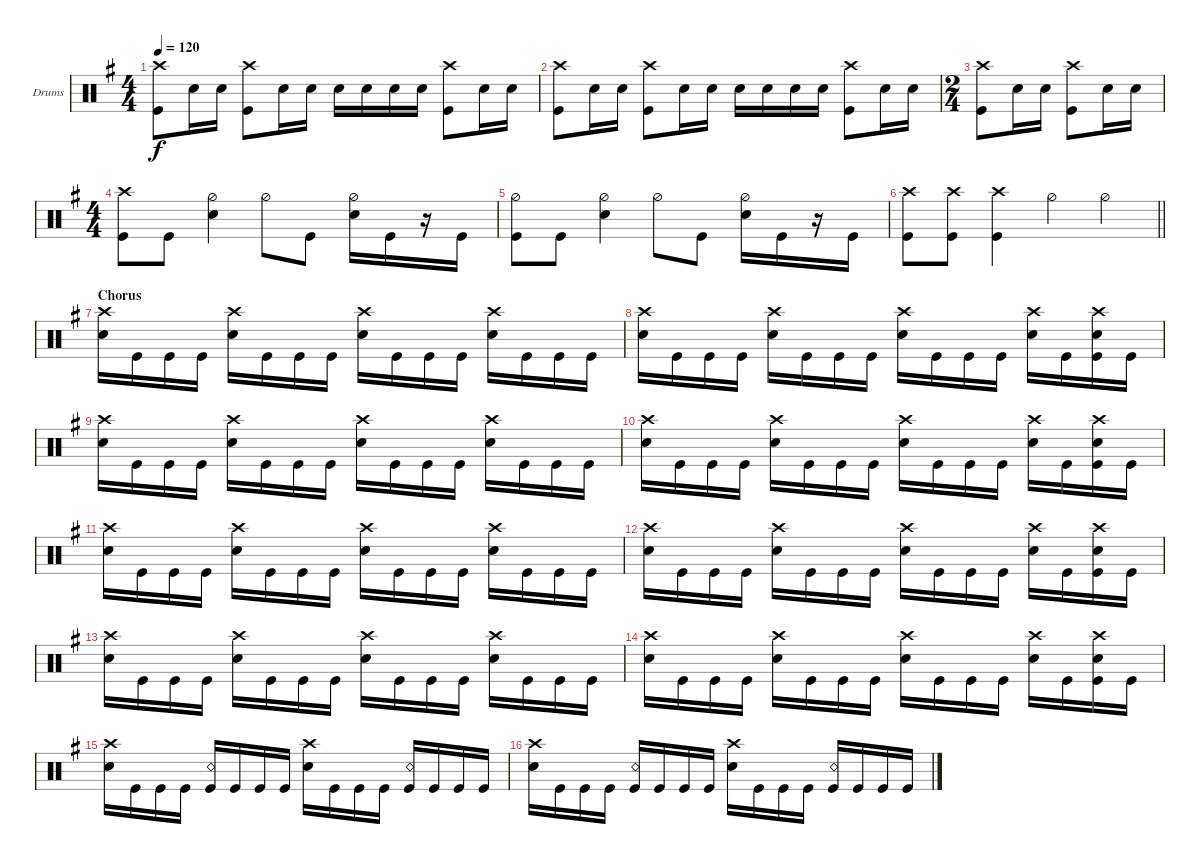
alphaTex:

\defaultSystemsLayout 4
\bracketExtendMode groupsimilarinstruments
\firstSystemTrackNameOrientation horizontal
\otherSystemsTrackNameOrientation horizontal
\track ("Drums" "Drums") {instrument percussion}
\staff {score}
\articulation defaults
\ts (4 4)
\tempo 120
\clef neutral
\ks g
("Kick (hit)" "Crash high (hit)").8{dy f} "Snare (hit) 2".16 "Snare (hit) 2".16 ("Kick (hit)" "Crash high (hit)").8 "Snare (hit) 2".16 "Snare (hit) 2".16 "Snare (hit) 2".16 "Snare (hit) 2".16 "Snare (hit) 2".16 "Snare (hit) 2".16 ("Kick (hit)" "Crash high (hit)").8 "Snare (hit) 2".16 "Snare (hit) 2".16 |
("Kick (hit)" "Crash high (hit)").8 "Snare (hit) 2".16 "Snare (hit) 2".16 ("Kick (hit)" "Crash high (hit)").8 "Snare (hit) 2".16 "Snare (hit) 2".16 "Snare (hit) 2".16 "Snare (hit) 2".16 "Snare (hit) 2".16 "Snare (hit) 2".16 ("Kick (hit)" "Crash high (hit)").8 "Snare (hit) 2".16 "Snare (hit) 2".16 |
\ts (2 4)
("Kick (hit)" "Crash high (hit)").8 "Snare (hit) 2".16 "Snare (hit) 2".16 ("Kick (hit)" "Crash high (hit)").8 "Snare (hit) 2".16 "Snare (hit) 2".16 |
\ts (4 4)
("Kick (hit)" "Crash high (hit)").8 "Kick (hit)".8 ("Snare (hit) 2" "Hi-Hat (half)").4 "Hi-Hat (half)".8 "Kick (hit)".8 ("Snare (hit) 2" "Hi-Hat (half)").16 "Kick (hit)".16 r.16 "Kick (hit)".16 |
("Kick (hit)" "Hi-Hat (half)").8 "Kick (hit)".8 ("Snare (hit) 2" "Hi-Hat (half)").4 "Hi-Hat (half)".8 "Kick (hit)".8 ("Snare (hit) 2" "Hi-Hat (half)").16 "Kick (hit)".16 r.16 "Kick (hit)".16 |
\barLineRight lightlight
("Kick (hit)" "Crash high (hit)").8 ("Kick (hit)" "Crash high (hit)").8 ("Kick (hit)" "Crash high (hit)").4 "Hi-Hat (half)".4 "Hi-Hat (half)".4 |
\section ("" "Chorus")
("Snare (hit) 2" "Crash high (hit)").16 "Kick (hit)".16 "Kick (hit)".16 "Kick (hit)".16 ("Snare (hit) 2" "Crash high (hit)").16 "Kick (hit)".16 "Kick (hit)".16 "Kick (hit)".16 ("Snare (hit) 2" "Crash high (hit)").16 "Kick (hit)".16 "Kick (hit)".16 "Kick (hit)".16 ("Snare (hit) 2" "Crash high (hit)").16 "Kick (hit)".16 "Kick (hit)".16 "Kick (hit)".16 |
("Snare (hit) 2" "Crash high (hit)").16 "Kick (hit)".16 "Kick (hit)".16 "Kick (hit)".16 ("Snare (hit) 2" "Crash high (hit)").16 "Kick (hit)".16 "Kick (hit)".16 "Kick (hit)".16 ("Snare (hit) 2" "Crash high (hit)").16 "Kick (hit)".16 "Kick (hit)".16 "Kick (hit)".16 ("Snare (hit) 2" "Crash high (hit)").16 "Kick (hit)".16 ("Kick (hit)" "Snare (hit) 2" "Crash high (hit)").16 "Kick (hit)".16 |
("Snare (hit) 2" "Crash high (hit)").16 "Kick (hit)".16 "Kick (hit)".16 "Kick (hit)".16 ("Snare (hit) 2" "Crash high (hit)").16 "Kick (hit)".16 "Kick (hit)".16 "Kick (hit)".16 ("Snare (hit) 2" "Crash high (hit)").16 "Kick (hit)".16 "Kick (hit)".16 "Kick (hit)".16 ("Snare (hit) 2" "Crash high (hit)").16 "Kick (hit)".16 "Kick (hit)".16 "Kick (hit)".16 |
("Snare (hit) 2" "Crash high (hit)").16 "Kick (hit)".16 "Kick (hit)".16 "Kick (hit)".16 ("Snare (hit) 2" "Crash high (hit)").16 "Kick (hit)".16 "Kick (hit)".16 "Kick (hit)".16 ("Snare (hit) 2" "Crash high (hit)").16 "Kick (hit)".16 "Kick (hit)".16 "Kick (hit)".16 ("Snare (hit) 2" "Crash high (hit)").16 "Kick (hit)".16 ("Kick (hit)" "Snare (hit) 2" "Crash high (hit)").16 "Kick (hit)".16 |
("Snare (hit) 2" "Crash high (hit)").16 "Kick (hit)".16 "Kick (hit)".16 "Kick (hit)".16 ("Snare (hit) 2" "Crash high (hit)").16 "Kick (hit)".16 "Kick (hit)".16 "Kick (hit)".16 ("Snare (hit) 2" "Crash high (hit)").16 "Kick (hit)".16 "Kick (hit)".16 "Kick (hit)".16 ("Snare (hit) 2" "Crash high (hit)").16 "Kick (hit)".16 "Kick (hit)".16 "Kick (hit)".16 |
("Snare (hit) 2" "Crash high (hit)").16 "Kick (hit)".16 "Kick (hit)".16 "Kick (hit)".16 ("Snare (hit) 2" "Crash high (hit)").16 "Kick (hit)".16 "Kick (hit)".16 "Kick (hit)".16 ("Snare (hit) 2" "Crash high (hit)").16 "Kick (hit)".16 "Kick (hit)".16 "Kick (hit)".16 ("Snare (hit) 2" "Crash high (hit)").16 "Kick (hit)".16 ("Kick (hit)" "Snare (hit) 2" "Crash high (hit)").16 "Kick (hit)".16 |
("Snare (hit) 2" "Crash high (hit)").16 "Kick (hit)".16 "Kick (hit)".16 "Kick (hit)".16 ("Snare (hit) 2" "Crash high (hit)").16 "Kick (hit)".16 "Kick (hit)".16 "Kick (hit)".16 ("Snare (hit) 2" "Crash high (hit)").16 "Kick (hit)".16 "Kick (hit)".16 "Kick (hit)".16 ("Snare (hit) 2" "Crash high (hit)").16 "Kick (hit)".16 "Kick (hit)".16 "Kick (hit)".16 |
("Snare (hit) 2" "Crash high (hit)").16 "Kick (hit)".16 "Kick (hit)".16 "Kick (hit)".16 ("Snare (hit) 2" "Crash high (hit)").16 "Kick (hit)".16 "Kick (hit)".16 "Kick (hit)".16 ("Snare (hit) 2" "Crash high (hit)").16 "Kick (hit)".16 "Kick (hit)".16 "Kick (hit)".16 ("Snare (hit) 2" "Crash high (hit)").16 "Kick (hit)".16 ("Kick (hit)" "Snare (hit) 2" "Crash high (hit)").16 "Kick (hit)".16 |
("Snare (hit) 2" "Crash high (hit)").16 "Kick (hit)".16 "Kick (hit)".16 "Kick (hit)".16 ("Kick (hit)" "Snare (rim shot)").16 "Kick (hit)".16 "Kick (hit)".16 "Kick (hit)".16 ("Snare (hit) 2" "Crash high (hit)").16 "Kick (hit)".16 "Kick (hit)".16 "Kick (hit)".16 ("Kick (hit)" "Snare (rim shot)").16 "Kick (hit)".16 "Kick (hit)".16 "Kick (hit)".16 |
("Snare (hit) 2" "Crash high (hit)").16 "Kick (hit)".16 "Kick (hit)".16 "Kick (hit)".16 ("Kick (hit)" "Snare (rim shot)").16 "Kick (hit)".16 "Kick (hit)".16 "Kick (hit)".16 ("Snare (hit) 2" "Crash high (hit)").16 "Kick (hit)".16 "Kick (hit)".16 "Kick (hit)".16 ("Kick (hit)" "Snare (rim shot)").16 "Kick (hit)".16 "Kick (hit)".16 "Kick (hit)".16
